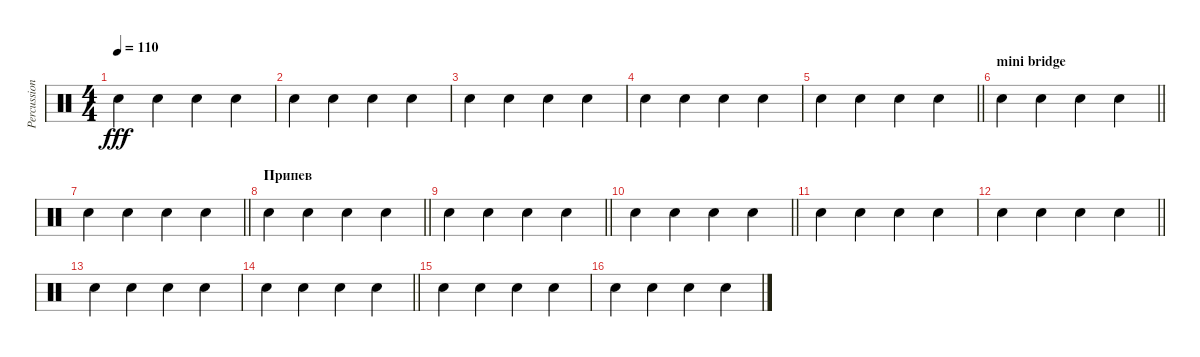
\track ("Percussion" "Percussion") {mute instrument percussion}
\staff {score}
\articulation defaults
\ts (4 4)
\tempo 110
\clef neutral
\ks c "Snare (hit) 2".4{dy fff} "Snare (hit) 2".4 "Snare (hit) 2".4 "Snare (hit) 2".4
|
"Snare (hit) 2".4 "Snare (hit) 2".4 "Snare (hit) 2".4 "Snare (hit) 2".4 |
"Snare (hit) 2".4 "Snare (hit) 2".4 "Snare (hit) 2".4 "Snare (hit) 2".4 |
"Snare (hit) 2".4 "Snare (hit) 2".4 "Snare (hit) 2".4 "Snare (hit) 2".4 |
\barLineRight lightlight "Snare (hit) 2".4 "Snare (hit) 2".4 "Snare (hit) 2".4 "Snare (hit) 2".4
|
\section ("" "mini bridge")
\barLineRight lightlight "Snare (hit) 2".4 "Snare (hit) 2".4 "Snare (hit) 2".4 "Snare (hit) 2".4
|
\section ("" "")
\barLineRight lightlight "Snare (hit) 2".4 "Snare (hit) 2".4 "Snare (hit) 2".4 "Snare (hit) 2".4
|
\section ("" "Припев")
\barLineRight lightlight "Snare (hit) 2".4 "Snare (hit) 2".4 "Snare (hit) 2".4 "Snare (hit) 2".4
|
\section ("" "")
\barLineRight lightlight "Snare (hit) 2".4 "Snare (hit) 2".4 "Snare (hit) 2".4 "Snare (hit) 2".4
|
\section ("" "")
\barLineRight lightlight "Snare (hit) 2".4 "Snare (hit) 2".4 "Snare (hit) 2".4 "Snare (hit) 2".4
|
\section ("" "")
"Snare (hit) 2".4 "Snare (hit) 2".4 "Snare (hit) 2".4 "Snare (hit) 2".4 |
\barLineRight lightlight "Snare (hit) 2".4 "Snare (hit) 2".4 "Snare (hit) 2".4 "Snare (hit) 2".4
|
"Snare (hit) 2".4 "Snare (hit) 2".4 "Snare (hit) 2".4 "Snare (hit) 2".4 |
\barLineRight lightlight "Snare (hit) 2".4 "Snare (hit) 2".4 "Snare (hit) 2".4 "Snare (hit) 2".4
|
"Snare (hit) 2".4 "Snare (hit) 2".4 "Snare (hit) 2".4 "Snare (hit) 2".4 |
"Snare (hit) 2".4 "Snare (hit) 2".4 "Snare (hit) 2".4 "Snare (hit) 2".4
